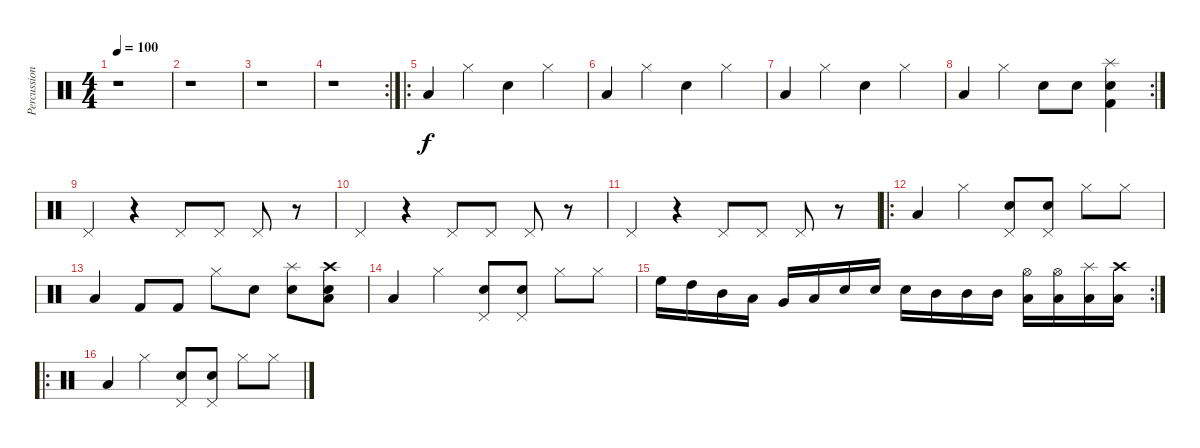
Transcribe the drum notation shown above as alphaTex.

\track ("Percussion" "Percussion") {instrument percussion}
\staff {score}
\articulation defaults
\ts (4 4)
\tempo 100
\clef neutral
\ks c
r.1{dy f} |
r.1 |
r.1 |
\rc 2
r.1 |
\ro "Low Floor Tom (hit)".4{volume 15} "Hi-Hat (closed)".4 "Electric Snare (hit)".4 "Hi-Hat (closed)".4
|
"Low Floor Tom (hit)".4 "Hi-Hat (closed)".4 "Electric Snare (hit)".4 "Hi-Hat (closed)".4 |
"Low Floor Tom (hit)".4 "Hi-Hat (closed)".4 "Electric Snare (hit)".4 "Hi-Hat (closed)".4 |
\rc 2 "Low Floor Tom (hit)".4 "Hi-Hat (closed)".4 "Electric Snare (hit)".8 "Electric Snare (hit)".8
("Splash (hit)" "Snare (hit) 2" "Kick (hit) 2").4 |
"Pedal Hi-Hat (hit)".4 r.4 "Pedal Hi-Hat (hit)".8 "Pedal Hi-Hat (hit)".8 "Pedal Hi-Hat (hit)".8 r.8 |
"Pedal Hi-Hat (hit)".4 r.4 "Pedal Hi-Hat (hit)".8 "Pedal Hi-Hat (hit)".8 "Pedal Hi-Hat (hit)".8 r.8 |
"Pedal Hi-Hat (hit)".4 r.4 "Pedal Hi-Hat (hit)".8 "Pedal Hi-Hat (hit)".8 "Pedal Hi-Hat (hit)".8 r.8 |
\ro "Low Floor Tom (hit)".4 "Hi-Hat (closed)".4
("Pedal Hi-Hat (hit)" "Electric Snare (hit)").8 ("Pedal Hi-Hat (hit)" "Electric Snare (hit)").8 "Hi-Hat (closed)".8 "Hi-Hat (closed)".8 |
"Low Floor Tom (hit)".4 "Kick (hit) 2".8 "Kick (hit) 2".8 "Hi-Hat (closed)".8 "Electric Snare (hit)".8 ("Splash (hit)" "Snare (hit) 2").8 ("Crash high (hit)" "Low Floor Tom (hit)" "Electric Snare (hit)").8 |
"Low Floor Tom (hit)".4 "Hi-Hat (closed)".4 ("Pedal Hi-Hat (hit)" "Electric Snare (hit)").8 ("Pedal Hi-Hat (hit)" "Electric Snare (hit)").8 "Hi-Hat (closed)".8 "Hi-Hat (closed)".8 |
\rc 2 "High Floor Tom (hit)".16 "High Tom (hit)".16 "Mid Tom (hit)".16 "Low Tom (hit)".16 "Very Low Tom (hit)".16 "Low Floor Tom (hit)".16 "Electric Snare (hit)".16 "Electric Snare (hit)".16 "Electric Snare (hit)".16 "Mid Tom (hit)".16 "Mid Tom (hit)".16 "Mid Tom (hit)".16
("Hi-Hat (open)" "Low Tom (hit)").16 ("Hi-Hat (open)" "Low Tom (hit)").16 ("Splash (hit)" "Low Tom (hit)").16 ("Crash high (hit)" "Low Tom (hit)").16 |
\ro "Low Floor Tom (hit)".4 "Hi-Hat (closed)".4
("Pedal Hi-Hat (hit)" "Electric Snare (hit)").8 ("Pedal Hi-Hat (hit)" "Electric Snare (hit)").8 "Hi-Hat (closed)".8 "Hi-Hat (closed)".8
